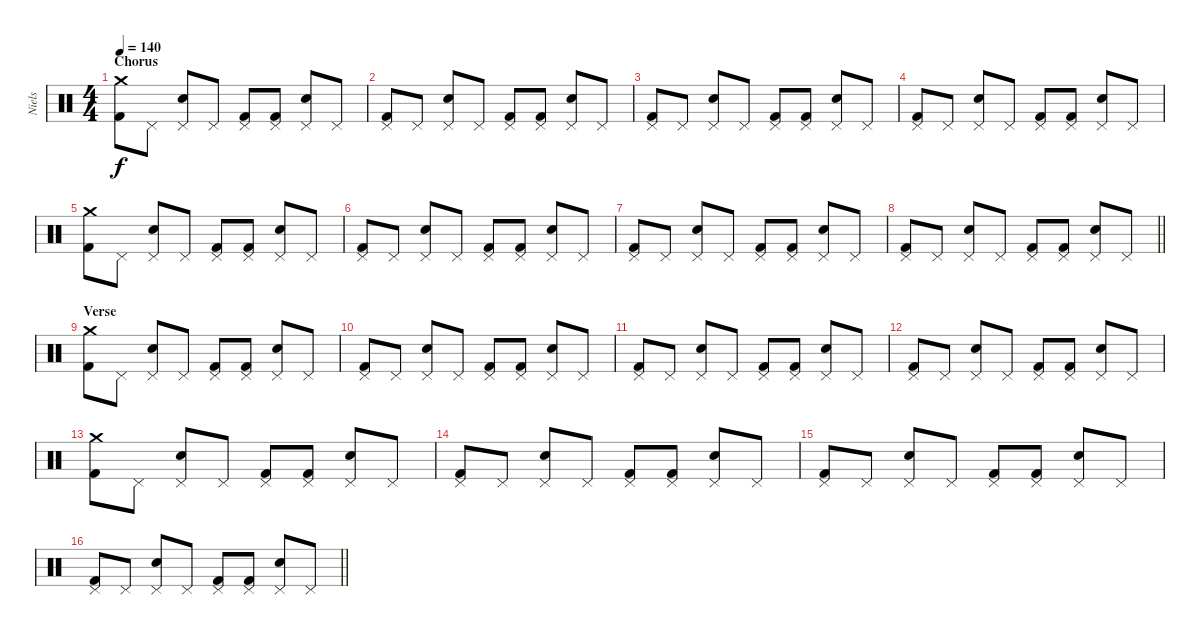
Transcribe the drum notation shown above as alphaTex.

\track ("Niels" "Niels") {instrument percussion}
\staff {score}
\articulation defaults
\ts (4 4)
\section ("" "Chorus")
\tempo 140
\clef neutral
\ks c
("Crash medium (hit)" "Kick (hit) 2").8{dy f} "Pedal Hi-Hat (hit)".8 ("Pedal Hi-Hat (hit)" "Snare (hit) 2").8 "Pedal Hi-Hat (hit)".8 ("Pedal Hi-Hat (hit)" "Kick (hit) 2").8 ("Pedal Hi-Hat (hit)" "Kick (hit) 2").8 ("Pedal Hi-Hat (hit)" "Snare (hit) 2").8 "Pedal Hi-Hat (hit)".8 |
("Pedal Hi-Hat (hit)" "Kick (hit) 2").8 "Pedal Hi-Hat (hit)".8 ("Pedal Hi-Hat (hit)" "Snare (hit) 2").8 "Pedal Hi-Hat (hit)".8 ("Pedal Hi-Hat (hit)" "Kick (hit) 2").8 ("Pedal Hi-Hat (hit)" "Kick (hit) 2").8 ("Pedal Hi-Hat (hit)" "Snare (hit) 2").8 "Pedal Hi-Hat (hit)".8 |
("Pedal Hi-Hat (hit)" "Kick (hit) 2").8 "Pedal Hi-Hat (hit)".8 ("Pedal Hi-Hat (hit)" "Snare (hit) 2").8 "Pedal Hi-Hat (hit)".8 ("Pedal Hi-Hat (hit)" "Kick (hit) 2").8 ("Pedal Hi-Hat (hit)" "Kick (hit) 2").8 ("Pedal Hi-Hat (hit)" "Snare (hit) 2").8 "Pedal Hi-Hat (hit)".8 |
("Pedal Hi-Hat (hit)" "Kick (hit) 2").8 "Pedal Hi-Hat (hit)".8 ("Pedal Hi-Hat (hit)" "Snare (hit) 2").8 "Pedal Hi-Hat (hit)".8 ("Pedal Hi-Hat (hit)" "Kick (hit) 2").8 ("Pedal Hi-Hat (hit)" "Kick (hit) 2").8 ("Pedal Hi-Hat (hit)" "Snare (hit) 2").8 "Pedal Hi-Hat (hit)".8 |
("Crash medium (hit)" "Kick (hit) 2").8 "Pedal Hi-Hat (hit)".8 ("Pedal Hi-Hat (hit)" "Snare (hit) 2").8 "Pedal Hi-Hat (hit)".8 ("Pedal Hi-Hat (hit)" "Kick (hit) 2").8 ("Pedal Hi-Hat (hit)" "Kick (hit) 2").8 ("Pedal Hi-Hat (hit)" "Snare (hit) 2").8 "Pedal Hi-Hat (hit)".8 |
("Pedal Hi-Hat (hit)" "Kick (hit) 2").8 "Pedal Hi-Hat (hit)".8 ("Pedal Hi-Hat (hit)" "Snare (hit) 2").8 "Pedal Hi-Hat (hit)".8 ("Pedal Hi-Hat (hit)" "Kick (hit) 2").8 ("Pedal Hi-Hat (hit)" "Kick (hit) 2").8 ("Pedal Hi-Hat (hit)" "Snare (hit) 2").8 "Pedal Hi-Hat (hit)".8 |
("Pedal Hi-Hat (hit)" "Kick (hit) 2").8 "Pedal Hi-Hat (hit)".8 ("Pedal Hi-Hat (hit)" "Snare (hit) 2").8 "Pedal Hi-Hat (hit)".8 ("Pedal Hi-Hat (hit)" "Kick (hit) 2").8 ("Pedal Hi-Hat (hit)" "Kick (hit) 2").8 ("Pedal Hi-Hat (hit)" "Snare (hit) 2").8 "Pedal Hi-Hat (hit)".8 |
\barLineRight lightlight
("Pedal Hi-Hat (hit)" "Kick (hit) 2").8 "Pedal Hi-Hat (hit)".8 ("Pedal Hi-Hat (hit)" "Snare (hit) 2").8 "Pedal Hi-Hat (hit)".8 ("Pedal Hi-Hat (hit)" "Kick (hit) 2").8 ("Pedal Hi-Hat (hit)" "Kick (hit) 2").8 ("Pedal Hi-Hat (hit)" "Snare (hit) 2").8 "Pedal Hi-Hat (hit)".8 |
\section ("" "Verse")
("Crash medium (hit)" "Kick (hit) 2").8 "Pedal Hi-Hat (hit)".8 ("Pedal Hi-Hat (hit)" "Snare (hit) 2").8 "Pedal Hi-Hat (hit)".8 ("Pedal Hi-Hat (hit)" "Kick (hit) 2").8 ("Pedal Hi-Hat (hit)" "Kick (hit) 2").8 ("Pedal Hi-Hat (hit)" "Snare (hit) 2").8 "Pedal Hi-Hat (hit)".8 |
("Pedal Hi-Hat (hit)" "Kick (hit) 2").8 "Pedal Hi-Hat (hit)".8 ("Pedal Hi-Hat (hit)" "Snare (hit) 2").8 "Pedal Hi-Hat (hit)".8 ("Pedal Hi-Hat (hit)" "Kick (hit) 2").8 ("Pedal Hi-Hat (hit)" "Kick (hit) 2").8 ("Pedal Hi-Hat (hit)" "Snare (hit) 2").8 "Pedal Hi-Hat (hit)".8 |
("Pedal Hi-Hat (hit)" "Kick (hit) 2").8 "Pedal Hi-Hat (hit)".8 ("Pedal Hi-Hat (hit)" "Snare (hit) 2").8 "Pedal Hi-Hat (hit)".8 ("Pedal Hi-Hat (hit)" "Kick (hit) 2").8 ("Pedal Hi-Hat (hit)" "Kick (hit) 2").8 ("Pedal Hi-Hat (hit)" "Snare (hit) 2").8 "Pedal Hi-Hat (hit)".8 |
("Pedal Hi-Hat (hit)" "Kick (hit) 2").8 "Pedal Hi-Hat (hit)".8 ("Pedal Hi-Hat (hit)" "Snare (hit) 2").8 "Pedal Hi-Hat (hit)".8 ("Pedal Hi-Hat (hit)" "Kick (hit) 2").8 ("Pedal Hi-Hat (hit)" "Kick (hit) 2").8 ("Pedal Hi-Hat (hit)" "Snare (hit) 2").8 "Pedal Hi-Hat (hit)".8 |
("Crash medium (hit)" "Kick (hit) 2").8 "Pedal Hi-Hat (hit)".8 ("Pedal Hi-Hat (hit)" "Snare (hit) 2").8 "Pedal Hi-Hat (hit)".8 ("Pedal Hi-Hat (hit)" "Kick (hit) 2").8 ("Pedal Hi-Hat (hit)" "Kick (hit) 2").8 ("Pedal Hi-Hat (hit)" "Snare (hit) 2").8 "Pedal Hi-Hat (hit)".8 |
("Pedal Hi-Hat (hit)" "Kick (hit) 2").8 "Pedal Hi-Hat (hit)".8 ("Pedal Hi-Hat (hit)" "Snare (hit) 2").8 "Pedal Hi-Hat (hit)".8 ("Pedal Hi-Hat (hit)" "Kick (hit) 2").8 ("Pedal Hi-Hat (hit)" "Kick (hit) 2").8 ("Pedal Hi-Hat (hit)" "Snare (hit) 2").8 "Pedal Hi-Hat (hit)".8 |
("Pedal Hi-Hat (hit)" "Kick (hit) 2").8 "Pedal Hi-Hat (hit)".8 ("Pedal Hi-Hat (hit)" "Snare (hit) 2").8 "Pedal Hi-Hat (hit)".8 ("Pedal Hi-Hat (hit)" "Kick (hit) 2").8 ("Pedal Hi-Hat (hit)" "Kick (hit) 2").8 ("Pedal Hi-Hat (hit)" "Snare (hit) 2").8 "Pedal Hi-Hat (hit)".8 |
\barLineRight lightlight
("Pedal Hi-Hat (hit)" "Kick (hit) 2").8 "Pedal Hi-Hat (hit)".8 ("Pedal Hi-Hat (hit)" "Snare (hit) 2").8 "Pedal Hi-Hat (hit)".8 ("Pedal Hi-Hat (hit)" "Kick (hit) 2").8 ("Pedal Hi-Hat (hit)" "Kick (hit) 2").8 ("Pedal Hi-Hat (hit)" "Snare (hit) 2").8 "Pedal Hi-Hat (hit)".8
